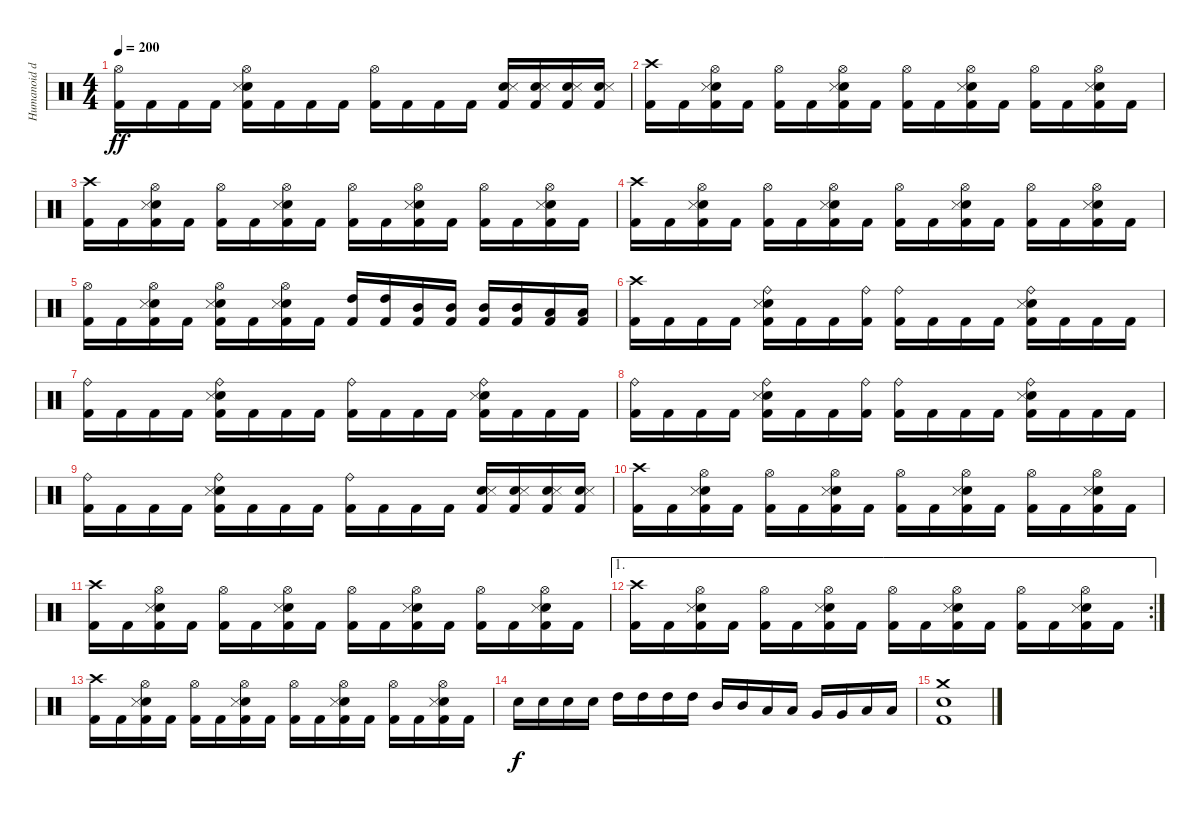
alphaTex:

\track ("Humanoid drum machine" "Humanoid d") {instrument percussion}
\staff {score}
\articulation defaults
\ts (4 4)
\tempo 200
\clef neutral
\ks c
("Hi-Hat (open)" "Kick (hit) 2").16{dy ff} "Kick (hit) 2".16 "Kick (hit) 2".16 "Kick (hit) 2".16 ("Hi-Hat (open)" "Electric Snare (hit)" "Snare (side stick) 3" "Kick (hit) 2").16 "Kick (hit) 2".16 "Kick (hit) 2".16 "Kick (hit) 2".16 ("Hi-Hat (open)" "Kick (hit) 2").16 "Kick (hit) 2".16 "Kick (hit) 2".16 "Kick (hit) 2".16 ("Electric Snare (hit)" "Snare (side stick) 3" "Kick (hit) 2").16 ("Electric Snare (hit)" "Snare (side stick) 3" "Kick (hit) 2").16 ("Electric Snare (hit)" "Snare (side stick) 3" "Kick (hit) 2").16 ("Electric Snare (hit)" "Snare (side stick) 3" "Kick (hit) 2").16 |
("Crash high (hit)" "Kick (hit) 2").16 "Kick (hit) 2".16 ("Hi-Hat (open)" "Electric Snare (hit)" "Snare (side stick) 3" "Kick (hit) 2").16 "Kick (hit) 2".16 ("Hi-Hat (open)" "Kick (hit) 2").16 "Kick (hit) 2".16 ("Hi-Hat (open)" "Electric Snare (hit)" "Snare (side stick) 3" "Kick (hit) 2").16 "Kick (hit) 2".16 ("Hi-Hat (open)" "Kick (hit) 2").16 "Kick (hit) 2".16 ("Hi-Hat (open)" "Electric Snare (hit)" "Snare (side stick) 3" "Kick (hit) 2").16 "Kick (hit) 2".16 ("Hi-Hat (open)" "Kick (hit) 2").16 "Kick (hit) 2".16 ("Hi-Hat (open)" "Electric Snare (hit)" "Snare (side stick) 3" "Kick (hit) 2").16 "Kick (hit) 2".16 |
("Crash high (hit)" "Kick (hit) 2").16 "Kick (hit) 2".16 ("Hi-Hat (open)" "Electric Snare (hit)" "Snare (side stick) 3" "Kick (hit) 2").16 "Kick (hit) 2".16 ("Hi-Hat (open)" "Kick (hit) 2").16 "Kick (hit) 2".16 ("Hi-Hat (open)" "Electric Snare (hit)" "Snare (side stick) 3" "Kick (hit) 2").16 "Kick (hit) 2".16 ("Hi-Hat (open)" "Kick (hit) 2").16 "Kick (hit) 2".16 ("Hi-Hat (open)" "Electric Snare (hit)" "Snare (side stick) 3" "Kick (hit) 2").16 "Kick (hit) 2".16 ("Hi-Hat (open)" "Kick (hit) 2").16 "Kick (hit) 2".16 ("Hi-Hat (open)" "Electric Snare (hit)" "Snare (side stick) 3" "Kick (hit) 2").16 "Kick (hit) 2".16 |
("Crash high (hit)" "Kick (hit) 2").16 "Kick (hit) 2".16 ("Hi-Hat (open)" "Electric Snare (hit)" "Snare (side stick) 3" "Kick (hit) 2").16 "Kick (hit) 2".16 ("Hi-Hat (open)" "Kick (hit) 2").16 "Kick (hit) 2".16 ("Hi-Hat (open)" "Electric Snare (hit)" "Snare (side stick) 3" "Kick (hit) 2").16 "Kick (hit) 2".16 ("Hi-Hat (open)" "Kick (hit) 2").16 "Kick (hit) 2".16 ("Hi-Hat (open)" "Electric Snare (hit)" "Snare (side stick) 3" "Kick (hit) 2").16 "Kick (hit) 2".16 ("Hi-Hat (open)" "Kick (hit) 2").16 "Kick (hit) 2".16 ("Hi-Hat (open)" "Electric Snare (hit)" "Snare (side stick) 3" "Kick (hit) 2").16 "Kick (hit) 2".16 |
("Hi-Hat (open)" "Kick (hit) 2").16 "Kick (hit) 2".16 ("Hi-Hat (open)" "Electric Snare (hit)" "Snare (side stick) 3" "Kick (hit) 2").16 "Kick (hit) 2".16 ("Hi-Hat (open)" "Electric Snare (hit)" "Snare (side stick) 3" "Kick (hit) 2").16 "Kick (hit) 2".16 ("Hi-Hat (open)" "Electric Snare (hit)" "Snare (side stick) 3" "Kick (hit) 2").16 "Kick (hit) 2".16 ("High Tom (hit)" "Kick (hit) 2").16 ("High Tom (hit)" "Kick (hit) 2").16 ("Mid Tom (hit)" "Kick (hit) 2").16 ("Mid Tom (hit)" "Kick (hit) 2").16 ("Mid Tom (hit)" "Kick (hit) 2").16 ("Mid Tom (hit)" "Kick (hit) 2").16 ("Low Tom (hit)" "Kick (hit) 2").16 ("Low Tom (hit)" "Kick (hit) 2").16 |
("Crash high (hit)" "Kick (hit) 2").16 "Kick (hit) 2".16 "Kick (hit) 2".16 "Kick (hit) 2".16 ("Ride (bell)" "Electric Snare (hit)" "Snare (side stick) 3" "Kick (hit) 2").16 "Kick (hit) 2".16 "Kick (hit) 2".16 ("Ride (bell)" "Kick (hit) 2").16 ("Ride (bell)" "Kick (hit) 2").16 "Kick (hit) 2".16 "Kick (hit) 2".16 "Kick (hit) 2".16 ("Ride (bell)" "Electric Snare (hit)" "Snare (side stick) 3" "Kick (hit) 2").16 "Kick (hit) 2".16 "Kick (hit) 2".16 "Kick (hit) 2".16 |
("Ride (bell)" "Kick (hit) 2").16 "Kick (hit) 2".16 "Kick (hit) 2".16 "Kick (hit) 2".16 ("Ride (bell)" "Electric Snare (hit)" "Snare (side stick) 3" "Kick (hit) 2").16 "Kick (hit) 2".16 "Kick (hit) 2".16 "Kick (hit) 2".16 ("Ride (bell)" "Kick (hit) 2").16 "Kick (hit) 2".16 "Kick (hit) 2".16 "Kick (hit) 2".16 ("Ride (bell)" "Electric Snare (hit)" "Snare (side stick) 3" "Kick (hit) 2").16 "Kick (hit) 2".16 "Kick (hit) 2".16 "Kick (hit) 2".16 |
("Ride (bell)" "Kick (hit) 2").16 "Kick (hit) 2".16 "Kick (hit) 2".16 "Kick (hit) 2".16 ("Ride (bell)" "Electric Snare (hit)" "Snare (side stick) 3" "Kick (hit) 2").16 "Kick (hit) 2".16 "Kick (hit) 2".16 ("Ride (bell)" "Kick (hit) 2").16 ("Ride (bell)" "Kick (hit) 2").16 "Kick (hit) 2".16 "Kick (hit) 2".16 "Kick (hit) 2".16 ("Ride (bell)" "Electric Snare (hit)" "Snare (side stick) 3" "Kick (hit) 2").16 "Kick (hit) 2".16 "Kick (hit) 2".16 "Kick (hit) 2".16 |
("Ride (bell)" "Kick (hit) 2").16 "Kick (hit) 2".16 "Kick (hit) 2".16 "Kick (hit) 2".16 ("Ride (bell)" "Electric Snare (hit)" "Snare (side stick) 3" "Kick (hit) 2").16 "Kick (hit) 2".16 "Kick (hit) 2".16 "Kick (hit) 2".16 ("Ride (bell)" "Kick (hit) 2").16 "Kick (hit) 2".16 "Kick (hit) 2".16 "Kick (hit) 2".16 ("Electric Snare (hit)" "Snare (side stick) 3" "Kick (hit) 2").16 ("Electric Snare (hit)" "Snare (side stick) 3" "Kick (hit) 2").16 ("Electric Snare (hit)" "Snare (side stick) 3" "Kick (hit) 2").16 ("Electric Snare (hit)" "Snare (side stick) 3" "Kick (hit) 2").16 |
("Crash high (hit)" "Kick (hit) 2").16 "Kick (hit) 2".16 ("Hi-Hat (open)" "Electric Snare (hit)" "Snare (side stick) 3" "Kick (hit) 2").16 "Kick (hit) 2".16 ("Hi-Hat (open)" "Kick (hit) 2").16 "Kick (hit) 2".16 ("Hi-Hat (open)" "Electric Snare (hit)" "Snare (side stick) 3" "Kick (hit) 2").16 "Kick (hit) 2".16 ("Hi-Hat (open)" "Kick (hit) 2").16 "Kick (hit) 2".16 ("Hi-Hat (open)" "Electric Snare (hit)" "Snare (side stick) 3" "Kick (hit) 2").16 "Kick (hit) 2".16 ("Hi-Hat (open)" "Kick (hit) 2").16 "Kick (hit) 2".16 ("Hi-Hat (open)" "Electric Snare (hit)" "Snare (side stick) 3" "Kick (hit) 2").16 "Kick (hit) 2".16 |
("Crash high (hit)" "Kick (hit) 2").16 "Kick (hit) 2".16 ("Hi-Hat (open)" "Electric Snare (hit)" "Snare (side stick) 3" "Kick (hit) 2").16 "Kick (hit) 2".16 ("Hi-Hat (open)" "Kick (hit) 2").16 "Kick (hit) 2".16 ("Hi-Hat (open)" "Electric Snare (hit)" "Snare (side stick) 3" "Kick (hit) 2").16 "Kick (hit) 2".16 ("Hi-Hat (open)" "Kick (hit) 2").16 "Kick (hit) 2".16 ("Hi-Hat (open)" "Electric Snare (hit)" "Snare (side stick) 3" "Kick (hit) 2").16 "Kick (hit) 2".16 ("Hi-Hat (open)" "Kick (hit) 2").16 "Kick (hit) 2".16 ("Hi-Hat (open)" "Electric Snare (hit)" "Snare (side stick) 3" "Kick (hit) 2").16 "Kick (hit) 2".16 |
\ae 1
\rc 2
("Crash high (hit)" "Kick (hit) 2").16 "Kick (hit) 2".16 ("Hi-Hat (open)" "Electric Snare (hit)" "Snare (side stick) 3" "Kick (hit) 2").16 "Kick (hit) 2".16 ("Hi-Hat (open)" "Kick (hit) 2").16 "Kick (hit) 2".16 ("Hi-Hat (open)" "Electric Snare (hit)" "Snare (side stick) 3" "Kick (hit) 2").16 "Kick (hit) 2".16 ("Hi-Hat (open)" "Kick (hit) 2").16 "Kick (hit) 2".16 ("Hi-Hat (open)" "Electric Snare (hit)" "Snare (side stick) 3" "Kick (hit) 2").16 "Kick (hit) 2".16 ("Hi-Hat (open)" "Kick (hit) 2").16 "Kick (hit) 2".16 ("Hi-Hat (open)" "Electric Snare (hit)" "Snare (side stick) 3" "Kick (hit) 2").16 "Kick (hit) 2".16 |
("Crash high (hit)" "Kick (hit) 2").16 "Kick (hit) 2".16 ("Hi-Hat (open)" "Electric Snare (hit)" "Snare (side stick) 3" "Kick (hit) 2").16 "Kick (hit) 2".16 ("Hi-Hat (open)" "Kick (hit) 2").16 "Kick (hit) 2".16 ("Hi-Hat (open)" "Electric Snare (hit)" "Snare (side stick) 3" "Kick (hit) 2").16 "Kick (hit) 2".16 ("Hi-Hat (open)" "Kick (hit) 2").16 "Kick (hit) 2".16 ("Hi-Hat (open)" "Electric Snare (hit)" "Snare (side stick) 3" "Kick (hit) 2").16 "Kick (hit) 2".16 ("Hi-Hat (open)" "Kick (hit) 2").16 "Kick (hit) 2".16 ("Hi-Hat (open)" "Electric Snare (hit)" "Snare (side stick) 3" "Kick (hit) 2").16 "Kick (hit) 2".16 |
"Electric Snare (hit)".16{dy f} "Electric Snare (hit)".16 "Electric Snare (hit)".16 "Electric Snare (hit)".16 "High Tom (hit)".16 "High Tom (hit)".16 "High Tom (hit)".16 "High Tom (hit)".16 "Mid Tom (hit)".16 "Mid Tom (hit)".16 "Low Tom (hit)".16 "Low Tom (hit)".16 "Very Low Tom (hit)".16 "Very Low Tom (hit)".16 "Low Floor Tom (hit)".16 "Low Floor Tom (hit)".16 |
("Crash medium (hit)" "Electric Snare (hit)" "Kick (hit) 2").1
